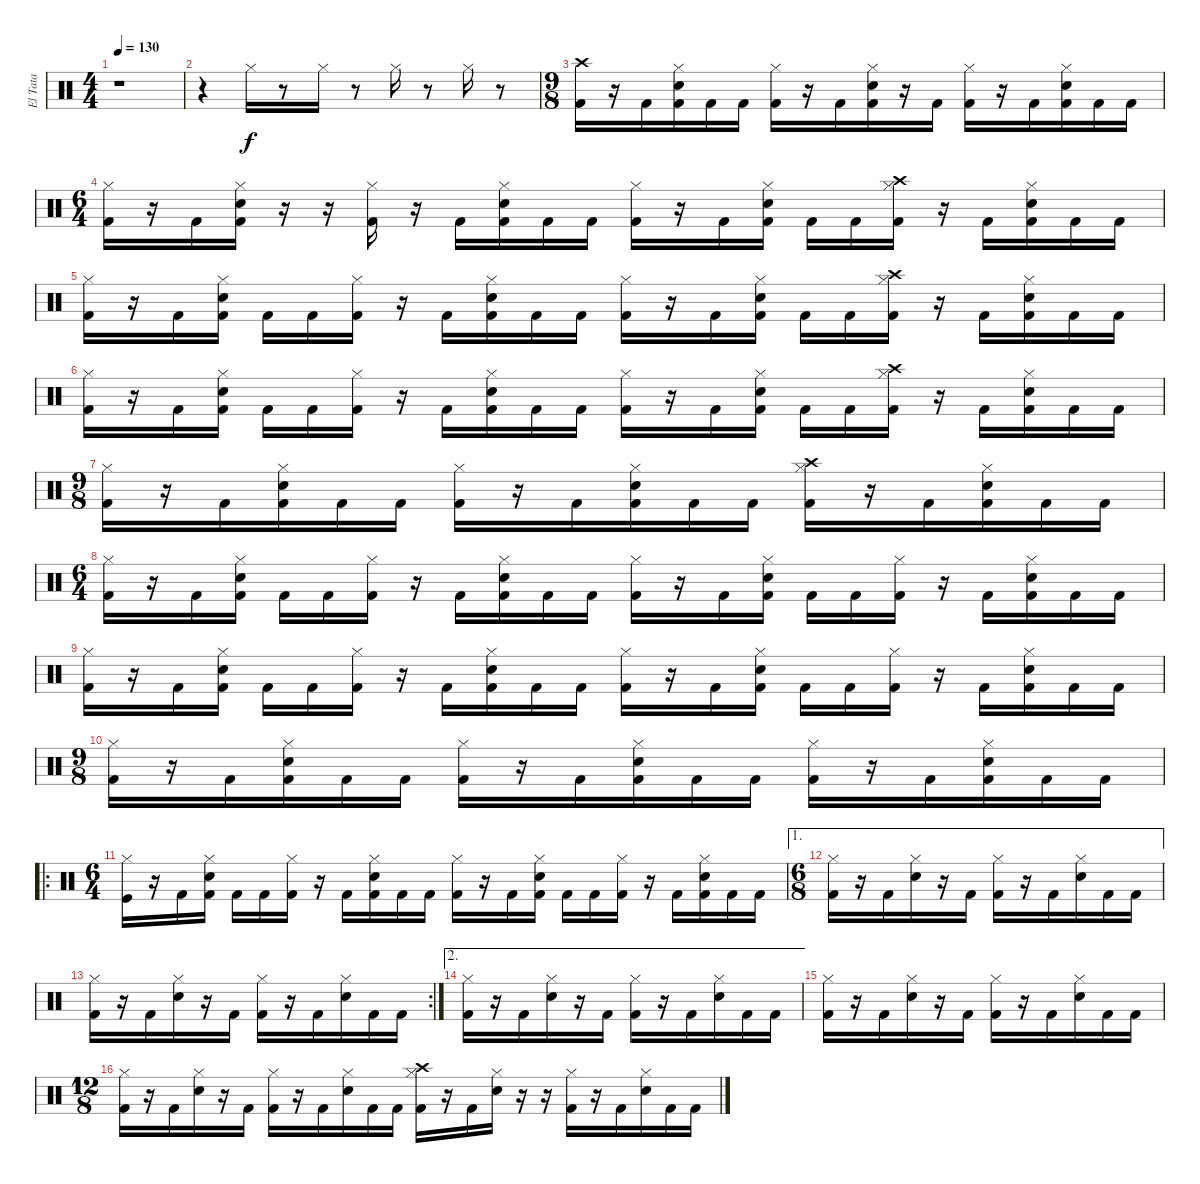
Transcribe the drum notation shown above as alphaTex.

\track ("El Tata" "El Tata") {instrument percussion}
\staff {score}
\articulation defaults
\ts (4 4)
\tempo 130
\clef neutral
\ks c
r.1{dy f} |
r.4 "Hi-Hat (closed)".16 r.8 "Hi-Hat (closed)".16 r.8 "Hi-Hat (closed)".16 r.8 "Hi-Hat (closed)".16 r.8 |
\ts (9 8)
("Kick (hit) 2" "Crash high (hit)").16 r.16 "Kick (hit) 2".16 ("Kick (hit) 2" "Hi-Hat (closed)" "Electric Snare (hit)").16 "Kick (hit) 2".16 "Kick (hit) 2".16 ("Kick (hit) 2" "Hi-Hat (closed)").16 r.16 "Kick (hit) 2".16 ("Kick (hit) 2" "Hi-Hat (closed)" "Electric Snare (hit)").16 r.16 "Kick (hit) 2".16 ("Kick (hit) 2" "Hi-Hat (closed)").16 r.16 "Kick (hit) 2".16 ("Kick (hit) 2" "Hi-Hat (closed)" "Electric Snare (hit)").16 "Kick (hit) 2".16 "Kick (hit) 2".16 |
\ts (6 4)
("Kick (hit) 2" "Hi-Hat (closed)").16 r.16 "Kick (hit) 2".16 ("Kick (hit) 2" "Hi-Hat (closed)" "Electric Snare (hit)").16 r.16 r.16 ("Kick (hit) 2" "Hi-Hat (closed)").16 r.16 "Kick (hit) 2".16 ("Kick (hit) 2" "Hi-Hat (closed)" "Electric Snare (hit)").16 "Kick (hit) 2".16 "Kick (hit) 2".16 ("Kick (hit) 2" "Hi-Hat (closed)").16 r.16 "Kick (hit) 2".16 ("Kick (hit) 2" "Hi-Hat (closed)" "Electric Snare (hit)").16 "Kick (hit) 2".16 "Kick (hit) 2".16 ("Kick (hit) 2" "Hi-Hat (closed)" "Crash high (hit)").16 r.16 "Kick (hit) 2".16 ("Kick (hit) 2" "Hi-Hat (closed)" "Electric Snare (hit)").16 "Kick (hit) 2".16 "Kick (hit) 2".16 |
("Kick (hit) 2" "Hi-Hat (closed)").16 r.16 "Kick (hit) 2".16 ("Kick (hit) 2" "Hi-Hat (closed)" "Electric Snare (hit)").16 "Kick (hit) 2".16 "Kick (hit) 2".16 ("Kick (hit) 2" "Hi-Hat (closed)").16 r.16 "Kick (hit) 2".16 ("Kick (hit) 2" "Hi-Hat (closed)" "Electric Snare (hit)").16 "Kick (hit) 2".16 "Kick (hit) 2".16 ("Kick (hit) 2" "Hi-Hat (closed)").16 r.16 "Kick (hit) 2".16 ("Kick (hit) 2" "Hi-Hat (closed)" "Electric Snare (hit)").16 "Kick (hit) 2".16 "Kick (hit) 2".16 ("Kick (hit) 2" "Hi-Hat (closed)" "Crash high (hit)").16 r.16 "Kick (hit) 2".16 ("Kick (hit) 2" "Hi-Hat (closed)" "Electric Snare (hit)").16 "Kick (hit) 2".16 "Kick (hit) 2".16 |
("Kick (hit) 2" "Hi-Hat (closed)").16 r.16 "Kick (hit) 2".16 ("Kick (hit) 2" "Hi-Hat (closed)" "Electric Snare (hit)").16 "Kick (hit) 2".16 "Kick (hit) 2".16 ("Kick (hit) 2" "Hi-Hat (closed)").16 r.16 "Kick (hit) 2".16 ("Kick (hit) 2" "Hi-Hat (closed)" "Electric Snare (hit)").16 "Kick (hit) 2".16 "Kick (hit) 2".16 ("Kick (hit) 2" "Hi-Hat (closed)").16 r.16 "Kick (hit) 2".16 ("Kick (hit) 2" "Hi-Hat (closed)" "Electric Snare (hit)").16 "Kick (hit) 2".16 "Kick (hit) 2".16 ("Kick (hit) 2" "Hi-Hat (closed)" "Crash high (hit)").16 r.16 "Kick (hit) 2".16 ("Kick (hit) 2" "Hi-Hat (closed)" "Electric Snare (hit)").16 "Kick (hit) 2".16 "Kick (hit) 2".16 |
\ts (9 8)
("Kick (hit) 2" "Hi-Hat (closed)").16 r.16 "Kick (hit) 2".16 ("Kick (hit) 2" "Hi-Hat (closed)" "Electric Snare (hit)").16 "Kick (hit) 2".16 "Kick (hit) 2".16 ("Kick (hit) 2" "Hi-Hat (closed)").16 r.16 "Kick (hit) 2".16 ("Kick (hit) 2" "Hi-Hat (closed)" "Electric Snare (hit)").16 "Kick (hit) 2".16 "Kick (hit) 2".16 ("Kick (hit) 2" "Hi-Hat (closed)" "Crash high (hit)").16 r.16 "Kick (hit) 2".16 ("Kick (hit) 2" "Hi-Hat (closed)" "Electric Snare (hit)").16 "Kick (hit) 2".16 "Kick (hit) 2".16 |
\ts (6 4)
("Kick (hit) 2" "Hi-Hat (closed)").16 r.16 "Kick (hit) 2".16 ("Kick (hit) 2" "Hi-Hat (closed)" "Electric Snare (hit)").16 "Kick (hit) 2".16 "Kick (hit) 2".16 ("Kick (hit) 2" "Hi-Hat (closed)").16 r.16 "Kick (hit) 2".16 ("Kick (hit) 2" "Hi-Hat (closed)" "Electric Snare (hit)").16 "Kick (hit) 2".16 "Kick (hit) 2".16 ("Kick (hit) 2" "Hi-Hat (closed)").16 r.16 "Kick (hit) 2".16 ("Kick (hit) 2" "Hi-Hat (closed)" "Electric Snare (hit)").16 "Kick (hit) 2".16 "Kick (hit) 2".16 ("Kick (hit) 2" "Hi-Hat (closed)").16 r.16 "Kick (hit) 2".16 ("Kick (hit) 2" "Hi-Hat (closed)" "Electric Snare (hit)").16 "Kick (hit) 2".16 "Kick (hit) 2".16 |
("Kick (hit) 2" "Hi-Hat (closed)").16 r.16 "Kick (hit) 2".16 ("Kick (hit) 2" "Hi-Hat (closed)" "Electric Snare (hit)").16 "Kick (hit) 2".16 "Kick (hit) 2".16 ("Kick (hit) 2" "Hi-Hat (closed)").16 r.16 "Kick (hit) 2".16 ("Kick (hit) 2" "Hi-Hat (closed)" "Electric Snare (hit)").16 "Kick (hit) 2".16 "Kick (hit) 2".16 ("Kick (hit) 2" "Hi-Hat (closed)").16 r.16 "Kick (hit) 2".16 ("Kick (hit) 2" "Hi-Hat (closed)" "Electric Snare (hit)").16 "Kick (hit) 2".16 "Kick (hit) 2".16 ("Kick (hit) 2" "Hi-Hat (closed)").16 r.16 "Kick (hit) 2".16 ("Kick (hit) 2" "Hi-Hat (closed)" "Electric Snare (hit)").16 "Kick (hit) 2".16 "Kick (hit) 2".16 |
\ts (9 8)
("Kick (hit) 2" "Hi-Hat (closed)").16 r.16 "Kick (hit) 2".16 ("Kick (hit) 2" "Hi-Hat (closed)" "Electric Snare (hit)").16 "Kick (hit) 2".16 "Kick (hit) 2".16 ("Kick (hit) 2" "Hi-Hat (closed)").16 r.16 "Kick (hit) 2".16 ("Kick (hit) 2" "Hi-Hat (closed)" "Electric Snare (hit)").16 "Kick (hit) 2".16 "Kick (hit) 2".16 ("Kick (hit) 2" "Hi-Hat (closed)").16 r.16 "Kick (hit) 2".16 ("Kick (hit) 2" "Hi-Hat (closed)" "Electric Snare (hit)").16 "Kick (hit) 2".16 "Kick (hit) 2".16 |
\ro
\ts (6 4)
("Kick (hit)" "Hi-Hat (closed)").16 r.16 "Kick (hit) 2".16 ("Kick (hit) 2" "Hi-Hat (closed)" "Electric Snare (hit)").16 "Kick (hit) 2".16 "Kick (hit) 2".16 ("Kick (hit) 2" "Hi-Hat (closed)").16 r.16 "Kick (hit) 2".16 ("Kick (hit) 2" "Hi-Hat (closed)" "Electric Snare (hit)").16 "Kick (hit) 2".16 "Kick (hit) 2".16 ("Kick (hit) 2" "Hi-Hat (closed)").16 r.16 "Kick (hit) 2".16 ("Kick (hit) 2" "Hi-Hat (closed)" "Electric Snare (hit)").16 "Kick (hit) 2".16 "Kick (hit) 2".16 ("Kick (hit) 2" "Hi-Hat (closed)").16 r.16 "Kick (hit) 2".16 ("Kick (hit) 2" "Hi-Hat (closed)" "Electric Snare (hit)").16 "Kick (hit) 2".16 "Kick (hit) 2".16 |
\ae 1
\ts (6 8)
("Hi-Hat (closed)" "Kick (hit) 2").16 r.16 "Kick (hit) 2".16 ("Hi-Hat (closed)" "Electric Snare (hit)").16 r.16 "Kick (hit) 2".16 ("Hi-Hat (closed)" "Kick (hit) 2").16 r.16 "Kick (hit) 2".16 ("Hi-Hat (closed)" "Electric Snare (hit)").16 "Kick (hit) 2".16 "Kick (hit) 2".16 |
\rc 2
("Hi-Hat (closed)" "Kick (hit) 2").16 r.16 "Kick (hit) 2".16 ("Hi-Hat (closed)" "Electric Snare (hit)").16 r.16 "Kick (hit) 2".16 ("Hi-Hat (closed)" "Kick (hit) 2").16 r.16 "Kick (hit) 2".16 ("Hi-Hat (closed)" "Electric Snare (hit)").16 "Kick (hit) 2".16 "Kick (hit) 2".16 |
\ae 2
("Hi-Hat (closed)" "Kick (hit) 2").16 r.16 "Kick (hit) 2".16 ("Hi-Hat (closed)" "Electric Snare (hit)").16 r.16 "Kick (hit) 2".16 ("Hi-Hat (closed)" "Kick (hit) 2").16 r.16 "Kick (hit) 2".16 ("Hi-Hat (closed)" "Electric Snare (hit)").16 "Kick (hit) 2".16 "Kick (hit) 2".16 |
("Hi-Hat (closed)" "Kick (hit) 2").16 r.16 "Kick (hit) 2".16 ("Hi-Hat (closed)" "Electric Snare (hit)").16 r.16 "Kick (hit) 2".16 ("Hi-Hat (closed)" "Kick (hit) 2").16 r.16 "Kick (hit) 2".16 ("Hi-Hat (closed)" "Electric Snare (hit)").16 "Kick (hit) 2".16 "Kick (hit) 2".16 |
\ts (12 8)
("Kick (hit) 2" "Hi-Hat (closed)").16 r.16 "Kick (hit) 2".16 ("Hi-Hat (closed)" "Electric Snare (hit)").16 r.16 "Kick (hit) 2".16 ("Kick (hit) 2" "Hi-Hat (closed)").16 r.16 "Kick (hit) 2".16 ("Hi-Hat (closed)" "Electric Snare (hit)").16 "Kick (hit) 2".16 "Kick (hit) 2".16 ("Kick (hit) 2" "Hi-Hat (closed)" "Crash high (hit)").16 r.16 "Kick (hit) 2".16 ("Hi-Hat (closed)" "Electric Snare (hit)").16 r.16 r.16 ("Kick (hit) 2" "Hi-Hat (closed)").16 r.16 "Kick (hit) 2".16 ("Hi-Hat (closed)" "Electric Snare (hit)").16 "Kick (hit) 2".16 "Kick (hit) 2".16
